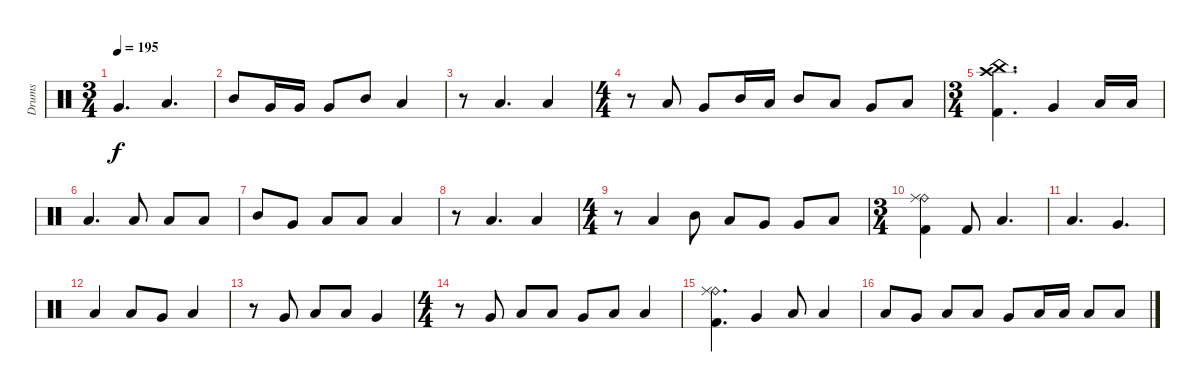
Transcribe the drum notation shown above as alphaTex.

\track ("Drums" "Drums") {instrument percussion}
\staff {score}
\articulation defaults
\ts (3 4)
\tempo 195
\clef neutral
\ks c "Very Low Tom (hit)".4{d dy f} "Low Tom (hit)".4{d}
|
"Mid Tom (hit)".8 "Very Low Tom (hit)".16 "Very Low Tom (hit)".16 "Very Low Tom (hit)".8 "Mid Tom (hit)".8 "Low Tom (hit)".4 |
r.8 "Low Tom (hit)".4{d} "Low Tom (hit)".4 |
\ts (4 4)
r.8 "Low Tom (hit)".8 "Very Low Tom (hit)".8 "Mid Tom (hit)".16 "Low Tom (hit)".16 "Mid Tom (hit)".8 "Low Tom (hit)".8 "Very Low Tom (hit)".8 "Low Floor Tom (hit)".8 |
\ts (3 4)
("Crash high (hit)" "China (hit)" "Kick (hit) 2").4{d} "Very Low Tom (hit)".4 "Low Floor Tom (hit)".16 "Low Floor Tom (hit)".16 |
"Low Floor Tom (hit)".4{d} "Low Tom (hit)".8 "Low Floor Tom (hit)".8 "Low Floor Tom (hit)".8 |
"Mid Tom (hit)".8 "Very Low Tom (hit)".8 "Low Floor Tom (hit)".8 "Low Tom (hit)".8 "Low Floor Tom (hit)".4 |
r.8 "Low Floor Tom (hit)".4{d} "Low Floor Tom (hit)".4 |
\ts (4 4)
r.8 "Low Floor Tom (hit)".4 "Mid Tom (hit)".8 "Low Tom (hit)".8 "Very Low Tom (hit)".8 "Very Low Tom (hit)".8 "Low Floor Tom (hit)".8 |
\ts (3 4)
("Ride (bell)" "Ride (middle)" "Kick (hit) 2").4 "Kick (hit) 2".8 "Low Floor Tom (hit)".4{d} |
"Low Tom (hit)".4{d} "Very Low Tom (hit)".4{d} |
"Low Floor Tom (hit)".4 "Low Floor Tom (hit)".8 "Very Low Tom (hit)".8 "Low Floor Tom (hit)".4 |
r.8 "Very Low Tom (hit)".8 "Low Floor Tom (hit)".8 "Low Floor Tom (hit)".8 "Very Low Tom (hit)".4 |
\ts (4 4)
r.8 "Very Low Tom (hit)".8 "Low Floor Tom (hit)".8 "Low Floor Tom (hit)".8 "Very Low Tom (hit)".8 "Low Floor Tom (hit)".8 "Low Floor Tom (hit)".4 |
("Ride (bell)" "Ride (middle)" "Kick (hit) 2").4{d} "Very Low Tom (hit)".4 "Low Floor Tom (hit)".8 "Low Floor Tom (hit)".4 |
"Low Tom (hit)".8 "Very Low Tom (hit)".8 "Low Floor Tom (hit)".8 "Low Floor Tom (hit)".8 "Very Low Tom (hit)".8 "Low Floor Tom (hit)".16 "Low Floor Tom (hit)".16 "Low Floor Tom (hit)".8 "Low Tom (hit)".8
